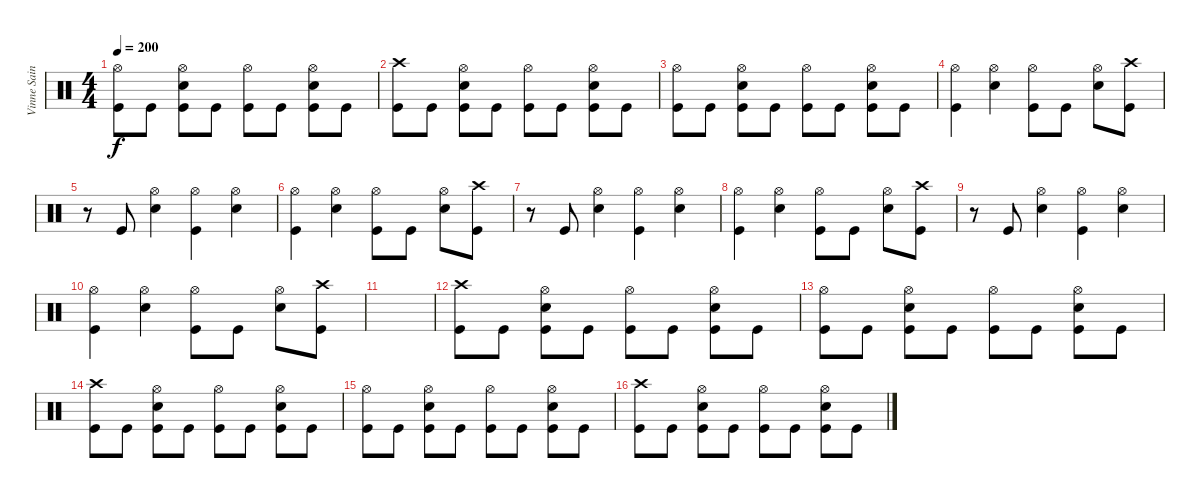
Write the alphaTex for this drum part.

\track ("Vinne Saint James" "Vinne Sain") {instrument percussion}
\staff {score}
\articulation defaults
\ts (4 4)
\tempo 200
\clef neutral
\ks c
("Hi-Hat (open)" "Kick (hit)").8{dy f} "Kick (hit)".8 ("Hi-Hat (open)" "Electric Snare (hit)" "Kick (hit)").8 "Kick (hit)".8 ("Hi-Hat (open)" "Kick (hit)").8 "Kick (hit)".8 ("Hi-Hat (open)" "Electric Snare (hit)" "Kick (hit)").8 "Kick (hit)".8 |
("Crash high (hit)" "Kick (hit)").8 "Kick (hit)".8 ("Hi-Hat (open)" "Electric Snare (hit)" "Kick (hit)").8 "Kick (hit)".8 ("Hi-Hat (open)" "Kick (hit)").8 "Kick (hit)".8 ("Hi-Hat (open)" "Electric Snare (hit)" "Kick (hit)").8 "Kick (hit)".8 |
("Hi-Hat (open)" "Kick (hit)").8 "Kick (hit)".8 ("Hi-Hat (open)" "Electric Snare (hit)" "Kick (hit)").8 "Kick (hit)".8 ("Hi-Hat (open)" "Kick (hit)").8 "Kick (hit)".8 ("Hi-Hat (open)" "Electric Snare (hit)" "Kick (hit)").8 "Kick (hit)".8 |
("Hi-Hat (open)" "Kick (hit)").4 ("Hi-Hat (open)" "Electric Snare (hit)").4 ("Hi-Hat (open)" "Kick (hit)").8 "Kick (hit)".8 ("Hi-Hat (open)" "Electric Snare (hit)").8 ("Crash high (hit)" "Kick (hit)").8 |
r.8 "Kick (hit)".8 ("Hi-Hat (open)" "Electric Snare (hit)").4 ("Hi-Hat (open)" "Kick (hit)").4 ("Hi-Hat (open)" "Electric Snare (hit)").4 |
("Hi-Hat (open)" "Kick (hit)").4 ("Hi-Hat (open)" "Electric Snare (hit)").4 ("Hi-Hat (open)" "Kick (hit)").8 "Kick (hit)".8 ("Hi-Hat (open)" "Electric Snare (hit)").8 ("Crash high (hit)" "Kick (hit)").8 |
r.8 "Kick (hit)".8 ("Hi-Hat (open)" "Electric Snare (hit)").4 ("Hi-Hat (open)" "Kick (hit)").4 ("Hi-Hat (open)" "Electric Snare (hit)").4 |
("Hi-Hat (open)" "Kick (hit)").4 ("Hi-Hat (open)" "Electric Snare (hit)").4 ("Hi-Hat (open)" "Kick (hit)").8 "Kick (hit)".8 ("Hi-Hat (open)" "Electric Snare (hit)").8 ("Crash high (hit)" "Kick (hit)").8 |
r.8 "Kick (hit)".8 ("Hi-Hat (open)" "Electric Snare (hit)").4 ("Hi-Hat (open)" "Kick (hit)").4 ("Hi-Hat (open)" "Electric Snare (hit)").4 |
("Hi-Hat (open)" "Kick (hit)").4 ("Hi-Hat (open)" "Electric Snare (hit)").4 ("Hi-Hat (open)" "Kick (hit)").8 "Kick (hit)".8 ("Hi-Hat (open)" "Electric Snare (hit)").8 ("Crash high (hit)" "Kick (hit)").8 |
|
("Crash high (hit)" "Kick (hit)").8 "Kick (hit)".8 ("Hi-Hat (open)" "Electric Snare (hit)" "Kick (hit)").8 "Kick (hit)".8 ("Hi-Hat (open)" "Kick (hit)").8 "Kick (hit)".8 ("Hi-Hat (open)" "Electric Snare (hit)" "Kick (hit)").8 "Kick (hit)".8 |
("Hi-Hat (open)" "Kick (hit)").8 "Kick (hit)".8 ("Hi-Hat (open)" "Electric Snare (hit)" "Kick (hit)").8 "Kick (hit)".8 ("Hi-Hat (open)" "Kick (hit)").8 "Kick (hit)".8 ("Hi-Hat (open)" "Electric Snare (hit)" "Kick (hit)").8 "Kick (hit)".8 |
("Crash high (hit)" "Kick (hit)").8 "Kick (hit)".8 ("Hi-Hat (open)" "Electric Snare (hit)" "Kick (hit)").8 "Kick (hit)".8 ("Hi-Hat (open)" "Kick (hit)").8 "Kick (hit)".8 ("Hi-Hat (open)" "Electric Snare (hit)" "Kick (hit)").8 "Kick (hit)".8 |
("Hi-Hat (open)" "Kick (hit)").8 "Kick (hit)".8 ("Hi-Hat (open)" "Electric Snare (hit)" "Kick (hit)").8 "Kick (hit)".8 ("Hi-Hat (open)" "Kick (hit)").8 "Kick (hit)".8 ("Hi-Hat (open)" "Electric Snare (hit)" "Kick (hit)").8 "Kick (hit)".8 |
("Crash high (hit)" "Kick (hit)").8 "Kick (hit)".8 ("Hi-Hat (open)" "Electric Snare (hit)" "Kick (hit)").8 "Kick (hit)".8 ("Hi-Hat (open)" "Kick (hit)").8 "Kick (hit)".8 ("Hi-Hat (open)" "Electric Snare (hit)" "Kick (hit)").8 "Kick (hit)".8
